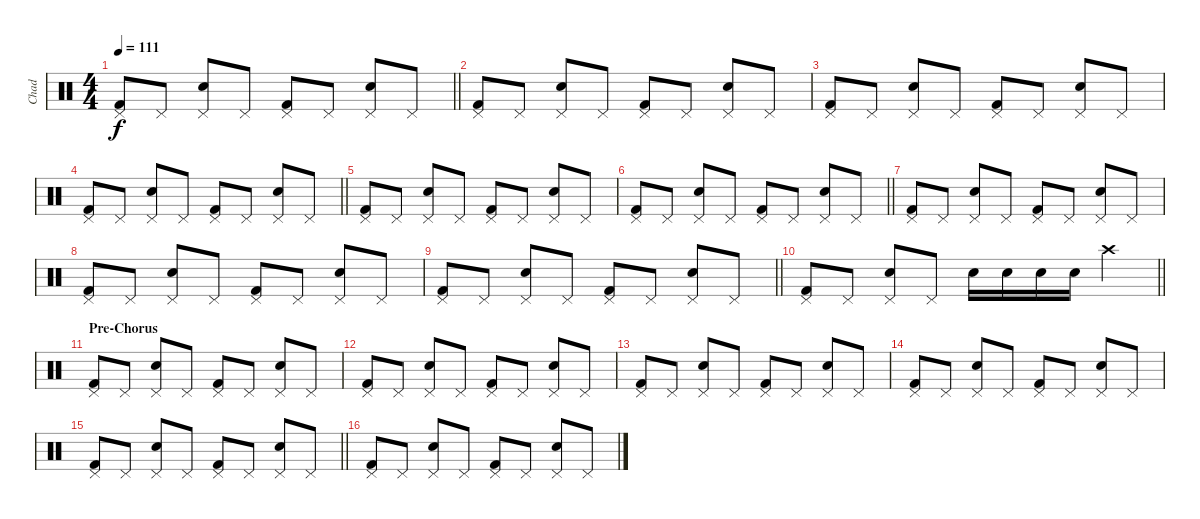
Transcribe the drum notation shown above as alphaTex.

\track ("Chad" "Chad") {instrument percussion}
\staff {score}
\articulation defaults
\ts (4 4)
\tempo 111
\clef neutral
\barLineRight lightlight
\ks c
("Pedal Hi-Hat (hit)" "Kick (hit) 2").8{dy f} "Pedal Hi-Hat (hit)".8 ("Pedal Hi-Hat (hit)" "Snare (hit) 2").8 "Pedal Hi-Hat (hit)".8 ("Pedal Hi-Hat (hit)" "Kick (hit) 2").8 "Pedal Hi-Hat (hit)".8 ("Pedal Hi-Hat (hit)" "Snare (hit) 2").8 "Pedal Hi-Hat (hit)".8 |
("Pedal Hi-Hat (hit)" "Kick (hit) 2").8 "Pedal Hi-Hat (hit)".8 ("Pedal Hi-Hat (hit)" "Snare (hit) 2").8 "Pedal Hi-Hat (hit)".8 ("Pedal Hi-Hat (hit)" "Kick (hit) 2").8 "Pedal Hi-Hat (hit)".8 ("Pedal Hi-Hat (hit)" "Snare (hit) 2").8 "Pedal Hi-Hat (hit)".8 |
("Pedal Hi-Hat (hit)" "Kick (hit) 2").8 "Pedal Hi-Hat (hit)".8 ("Pedal Hi-Hat (hit)" "Snare (hit) 2").8 "Pedal Hi-Hat (hit)".8 ("Pedal Hi-Hat (hit)" "Kick (hit) 2").8 "Pedal Hi-Hat (hit)".8 ("Pedal Hi-Hat (hit)" "Snare (hit) 2").8 "Pedal Hi-Hat (hit)".8 |
\barLineRight lightlight
("Pedal Hi-Hat (hit)" "Kick (hit) 2").8 "Pedal Hi-Hat (hit)".8 ("Pedal Hi-Hat (hit)" "Snare (hit) 2").8 "Pedal Hi-Hat (hit)".8 ("Pedal Hi-Hat (hit)" "Kick (hit) 2").8 "Pedal Hi-Hat (hit)".8 ("Pedal Hi-Hat (hit)" "Snare (hit) 2").8 "Pedal Hi-Hat (hit)".8 |
("Pedal Hi-Hat (hit)" "Kick (hit) 2").8 "Pedal Hi-Hat (hit)".8 ("Pedal Hi-Hat (hit)" "Snare (hit) 2").8 "Pedal Hi-Hat (hit)".8 ("Pedal Hi-Hat (hit)" "Kick (hit) 2").8 "Pedal Hi-Hat (hit)".8 ("Pedal Hi-Hat (hit)" "Snare (hit) 2").8 "Pedal Hi-Hat (hit)".8 |
\barLineRight lightlight
("Pedal Hi-Hat (hit)" "Kick (hit) 2").8 "Pedal Hi-Hat (hit)".8 ("Pedal Hi-Hat (hit)" "Snare (hit) 2").8 "Pedal Hi-Hat (hit)".8 ("Pedal Hi-Hat (hit)" "Kick (hit) 2").8 "Pedal Hi-Hat (hit)".8 ("Pedal Hi-Hat (hit)" "Snare (hit) 2").8 "Pedal Hi-Hat (hit)".8 |
("Pedal Hi-Hat (hit)" "Kick (hit) 2").8 "Pedal Hi-Hat (hit)".8 ("Pedal Hi-Hat (hit)" "Snare (hit) 2").8 "Pedal Hi-Hat (hit)".8 ("Pedal Hi-Hat (hit)" "Kick (hit) 2").8 "Pedal Hi-Hat (hit)".8 ("Pedal Hi-Hat (hit)" "Snare (hit) 2").8 "Pedal Hi-Hat (hit)".8 |
("Pedal Hi-Hat (hit)" "Kick (hit) 2").8 "Pedal Hi-Hat (hit)".8 ("Pedal Hi-Hat (hit)" "Snare (hit) 2").8 "Pedal Hi-Hat (hit)".8 ("Pedal Hi-Hat (hit)" "Kick (hit) 2").8 "Pedal Hi-Hat (hit)".8 ("Pedal Hi-Hat (hit)" "Snare (hit) 2").8 "Pedal Hi-Hat (hit)".8 |
\barLineRight lightlight
("Pedal Hi-Hat (hit)" "Kick (hit) 2").8 "Pedal Hi-Hat (hit)".8 ("Pedal Hi-Hat (hit)" "Snare (hit) 2").8 "Pedal Hi-Hat (hit)".8 ("Pedal Hi-Hat (hit)" "Kick (hit) 2").8 "Pedal Hi-Hat (hit)".8 ("Pedal Hi-Hat (hit)" "Snare (hit) 2").8 "Pedal Hi-Hat (hit)".8 |
\barLineRight lightlight
("Pedal Hi-Hat (hit)" "Kick (hit) 2").8 "Pedal Hi-Hat (hit)".8 ("Pedal Hi-Hat (hit)" "Snare (hit) 2").8 "Pedal Hi-Hat (hit)".8 "Snare (hit) 2".16 "Snare (hit) 2".16 "Snare (hit) 2".16 "Snare (hit) 2".16 "Crash high (hit)".4 |
\section ("" "Pre-Chorus")
("Pedal Hi-Hat (hit)" "Kick (hit) 2").8 "Pedal Hi-Hat (hit)".8 ("Pedal Hi-Hat (hit)" "Snare (hit) 2").8 "Pedal Hi-Hat (hit)".8 ("Pedal Hi-Hat (hit)" "Kick (hit) 2").8 "Pedal Hi-Hat (hit)".8 ("Pedal Hi-Hat (hit)" "Snare (hit) 2").8 "Pedal Hi-Hat (hit)".8 |
("Pedal Hi-Hat (hit)" "Kick (hit) 2").8 "Pedal Hi-Hat (hit)".8 ("Pedal Hi-Hat (hit)" "Snare (hit) 2").8 "Pedal Hi-Hat (hit)".8 ("Pedal Hi-Hat (hit)" "Kick (hit) 2").8 "Pedal Hi-Hat (hit)".8 ("Pedal Hi-Hat (hit)" "Snare (hit) 2").8 "Pedal Hi-Hat (hit)".8 |
("Pedal Hi-Hat (hit)" "Kick (hit) 2").8 "Pedal Hi-Hat (hit)".8 ("Pedal Hi-Hat (hit)" "Snare (hit) 2").8 "Pedal Hi-Hat (hit)".8 ("Pedal Hi-Hat (hit)" "Kick (hit) 2").8 "Pedal Hi-Hat (hit)".8 ("Pedal Hi-Hat (hit)" "Snare (hit) 2").8 "Pedal Hi-Hat (hit)".8 |
("Pedal Hi-Hat (hit)" "Kick (hit) 2").8 "Pedal Hi-Hat (hit)".8 ("Pedal Hi-Hat (hit)" "Snare (hit) 2").8 "Pedal Hi-Hat (hit)".8 ("Pedal Hi-Hat (hit)" "Kick (hit) 2").8 "Pedal Hi-Hat (hit)".8 ("Pedal Hi-Hat (hit)" "Snare (hit) 2").8 "Pedal Hi-Hat (hit)".8 |
\barLineRight lightlight
("Pedal Hi-Hat (hit)" "Kick (hit) 2").8 "Pedal Hi-Hat (hit)".8 ("Pedal Hi-Hat (hit)" "Snare (hit) 2").8 "Pedal Hi-Hat (hit)".8 ("Pedal Hi-Hat (hit)" "Kick (hit) 2").8 "Pedal Hi-Hat (hit)".8 ("Pedal Hi-Hat (hit)" "Snare (hit) 2").8 "Pedal Hi-Hat (hit)".8 |
("Pedal Hi-Hat (hit)" "Kick (hit) 2").8 "Pedal Hi-Hat (hit)".8 ("Pedal Hi-Hat (hit)" "Snare (hit) 2").8 "Pedal Hi-Hat (hit)".8 ("Pedal Hi-Hat (hit)" "Kick (hit) 2").8 "Pedal Hi-Hat (hit)".8 ("Pedal Hi-Hat (hit)" "Snare (hit) 2").8 "Pedal Hi-Hat (hit)".8
